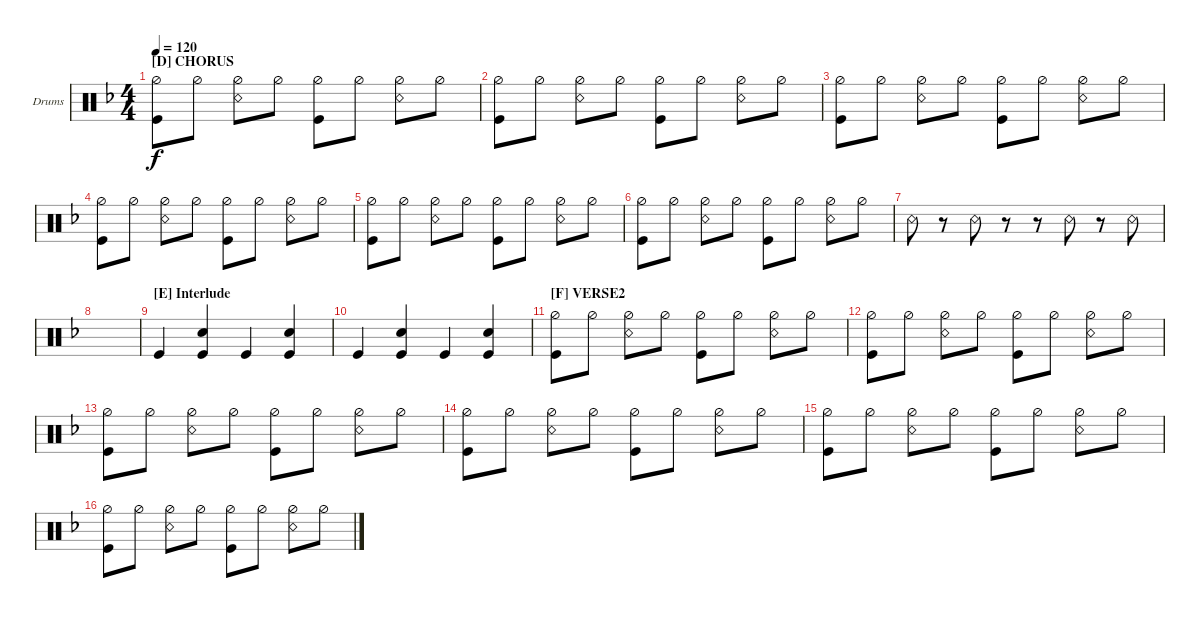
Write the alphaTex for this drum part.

\bracketExtendMode groupsimilarinstruments
\firstSystemTrackNameOrientation horizontal
\otherSystemsTrackNameOrientation horizontal
\track ("Drumkit" "Drums") {instrument percussion}
\staff {score}
\articulation defaults
\ts (4 4)
\section ("D" "CHORUS")
\tempo 120
\clef neutral
\scale
0.25
\ks f
("Kick (hit)" "Hi-Hat (half)").8{dy f} "Hi-Hat (half)".8 ("Hi-Hat (half)" "Snare (rim shot)").8 "Hi-Hat (half)".8 ("Hi-Hat (half)" "Kick (hit)").8 "Hi-Hat (half)".8 ("Hi-Hat (half)" "Snare (rim shot)").8 "Hi-Hat (half)".8 |
\scale
0.25 ("Kick (hit)" "Hi-Hat (half)").8 "Hi-Hat (half)".8 ("Hi-Hat (half)" "Snare (rim shot)").8 "Hi-Hat (half)".8 ("Hi-Hat (half)" "Kick (hit)").8 "Hi-Hat (half)".8 ("Hi-Hat (half)" "Snare (rim shot)").8 "Hi-Hat (half)".8 |
\scale
0.25 ("Kick (hit)" "Hi-Hat (half)").8 "Hi-Hat (half)".8 ("Hi-Hat (half)" "Snare (rim shot)").8 "Hi-Hat (half)".8 ("Hi-Hat (half)" "Kick (hit)").8 "Hi-Hat (half)".8 ("Hi-Hat (half)" "Snare (rim shot)").8 "Hi-Hat (half)".8 |
\scale
0.25 ("Kick (hit)" "Hi-Hat (half)").8 "Hi-Hat (half)".8 ("Hi-Hat (half)" "Snare (rim shot)").8 "Hi-Hat (half)".8 ("Hi-Hat (half)" "Kick (hit)").8 "Hi-Hat (half)".8 ("Hi-Hat (half)" "Snare (rim shot)").8 "Hi-Hat (half)".8 |
("Kick (hit)" "Hi-Hat (half)").8 "Hi-Hat (half)".8 ("Hi-Hat (half)" "Snare (rim shot)").8 "Hi-Hat (half)".8 ("Hi-Hat (half)" "Kick (hit)").8 "Hi-Hat (half)".8 ("Hi-Hat (half)" "Snare (rim shot)").8 "Hi-Hat (half)".8 |
("Kick (hit)" "Hi-Hat (half)").8 "Hi-Hat (half)".8 ("Hi-Hat (half)" "Snare (rim shot)").8 "Hi-Hat (half)".8 ("Hi-Hat (half)" "Kick (hit)").8 "Hi-Hat (half)".8 ("Hi-Hat (half)" "Snare (rim shot)").8 "Hi-Hat (half)".8 |
"Snare (rim shot)".8 r.8 "Snare (rim shot)".8 r.8 r.8 "Snare (rim shot)".8 r.8 "Snare (rim shot)".8 |
|
\section ("E" "Interlude")
"Kick (hit)".4 ("Kick (hit)" "Snare (hit) 2").4 "Kick (hit)".4 ("Kick (hit)" "Snare (hit) 2").4 |
"Kick (hit)".4 ("Kick (hit)" "Snare (hit) 2").4 "Kick (hit)".4 ("Kick (hit)" "Snare (hit) 2").4 |
\section ("F" "VERSE2")
("Kick (hit)" "Hi-Hat (half)").8 "Hi-Hat (half)".8 ("Hi-Hat (half)" "Snare (rim shot)").8 "Hi-Hat (half)".8 ("Hi-Hat (half)" "Kick (hit)").8 "Hi-Hat (half)".8 ("Hi-Hat (half)" "Snare (rim shot)").8 "Hi-Hat (half)".8 |
("Kick (hit)" "Hi-Hat (half)").8 "Hi-Hat (half)".8 ("Hi-Hat (half)" "Snare (rim shot)").8 "Hi-Hat (half)".8 ("Hi-Hat (half)" "Kick (hit)").8 "Hi-Hat (half)".8 ("Hi-Hat (half)" "Snare (rim shot)").8 "Hi-Hat (half)".8 |
("Kick (hit)" "Hi-Hat (half)").8 "Hi-Hat (half)".8 ("Hi-Hat (half)" "Snare (rim shot)").8 "Hi-Hat (half)".8 ("Hi-Hat (half)" "Kick (hit)").8 "Hi-Hat (half)".8 ("Hi-Hat (half)" "Snare (rim shot)").8 "Hi-Hat (half)".8 |
("Kick (hit)" "Hi-Hat (half)").8 "Hi-Hat (half)".8 ("Hi-Hat (half)" "Snare (rim shot)").8 "Hi-Hat (half)".8 ("Hi-Hat (half)" "Kick (hit)").8 "Hi-Hat (half)".8 ("Hi-Hat (half)" "Snare (rim shot)").8 "Hi-Hat (half)".8 |
("Kick (hit)" "Hi-Hat (half)").8 "Hi-Hat (half)".8 ("Hi-Hat (half)" "Snare (rim shot)").8 "Hi-Hat (half)".8 ("Hi-Hat (half)" "Kick (hit)").8 "Hi-Hat (half)".8 ("Hi-Hat (half)" "Snare (rim shot)").8 "Hi-Hat (half)".8 |
("Kick (hit)" "Hi-Hat (half)").8 "Hi-Hat (half)".8 ("Hi-Hat (half)" "Snare (rim shot)").8 "Hi-Hat (half)".8 ("Hi-Hat (half)" "Kick (hit)").8 "Hi-Hat (half)".8 ("Hi-Hat (half)" "Snare (rim shot)").8 "Hi-Hat (half)".8
